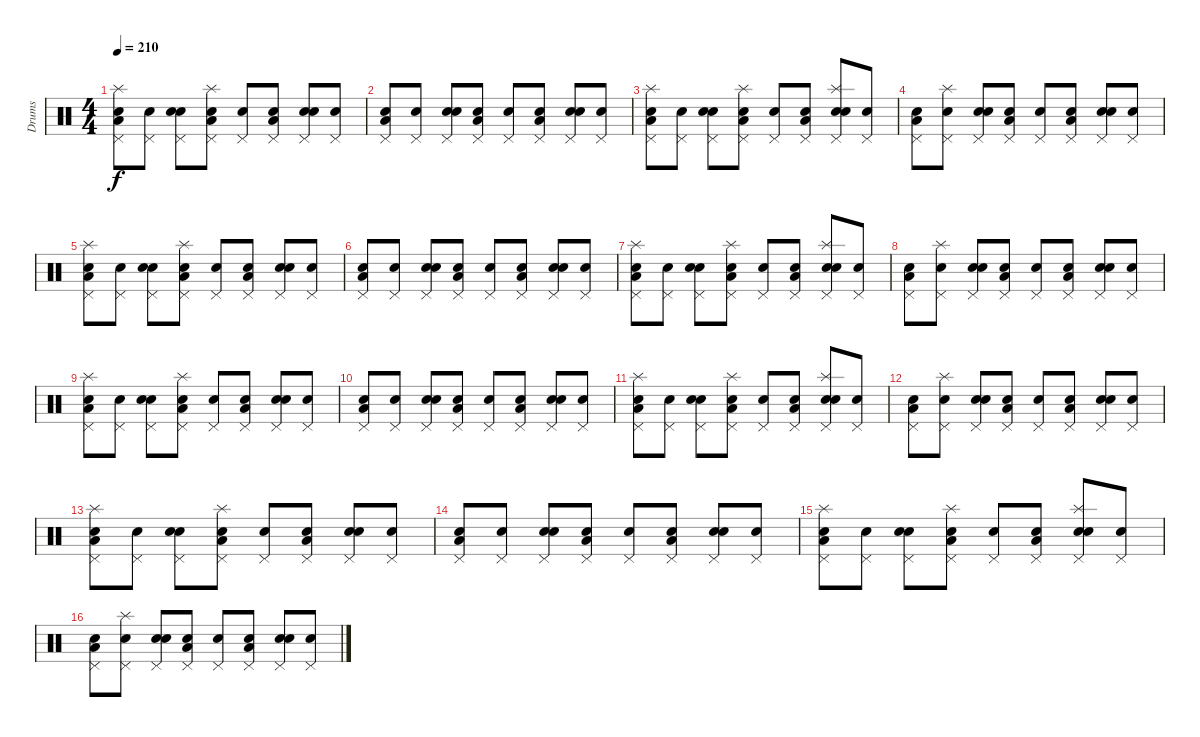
\track ("Drums" "Drums") {instrument percussion}
\staff {score}
\articulation defaults
\ts (4 4)
\tempo 210
\clef neutral
\ks c
("Snare (hit)" "Low Floor Tom (hit)" "Pedal Hi-Hat (hit)" "Splash (hit)").8{dy f} ("Snare (hit)" "Pedal Hi-Hat (hit)").8 ("Snare (hit)" "Electric Snare (hit)" "Pedal Hi-Hat (hit)").8 ("Snare (hit)" "Low Floor Tom (hit)" "Pedal Hi-Hat (hit)" "Splash (hit)").8 ("Snare (hit)" "Pedal Hi-Hat (hit)").8 ("Snare (hit)" "Low Floor Tom (hit)" "Pedal Hi-Hat (hit)").8 ("Snare (hit)" "Electric Snare (hit)" "Pedal Hi-Hat (hit)").8 ("Snare (hit)" "Pedal Hi-Hat (hit)").8 |
("Snare (hit)" "Low Floor Tom (hit)" "Pedal Hi-Hat (hit)").8 ("Snare (hit)" "Pedal Hi-Hat (hit)").8 ("Snare (hit)" "Electric Snare (hit)" "Pedal Hi-Hat (hit)").8 ("Snare (hit)" "Low Floor Tom (hit)" "Pedal Hi-Hat (hit)").8 ("Snare (hit)" "Pedal Hi-Hat (hit)").8 ("Snare (hit)" "Low Floor Tom (hit)" "Pedal Hi-Hat (hit)").8 ("Snare (hit)" "Electric Snare (hit)" "Pedal Hi-Hat (hit)").8 ("Snare (hit)" "Pedal Hi-Hat (hit)").8 |
("Snare (hit)" "Low Floor Tom (hit)" "Pedal Hi-Hat (hit)" "Splash (hit)").8 ("Snare (hit)" "Pedal Hi-Hat (hit)").8 ("Snare (hit)" "Electric Snare (hit)" "Pedal Hi-Hat (hit)").8 ("Snare (hit)" "Low Floor Tom (hit)" "Pedal Hi-Hat (hit)" "Splash (hit)").8 ("Snare (hit)" "Pedal Hi-Hat (hit)").8 ("Snare (hit)" "Low Floor Tom (hit)" "Pedal Hi-Hat (hit)").8 ("Snare (hit)" "Electric Snare (hit)" "Pedal Hi-Hat (hit)" "Splash (hit)").8 ("Snare (hit)" "Pedal Hi-Hat (hit)").8 |
("Snare (hit)" "Low Floor Tom (hit)" "Pedal Hi-Hat (hit)").8 ("Snare (hit)" "Pedal Hi-Hat (hit)" "Splash (hit)").8 ("Snare (hit)" "Electric Snare (hit)" "Pedal Hi-Hat (hit)").8 ("Snare (hit)" "Low Floor Tom (hit)" "Pedal Hi-Hat (hit)").8 ("Snare (hit)" "Pedal Hi-Hat (hit)").8 ("Snare (hit)" "Low Floor Tom (hit)" "Pedal Hi-Hat (hit)").8 ("Snare (hit)" "Electric Snare (hit)" "Pedal Hi-Hat (hit)").8 ("Snare (hit)" "Pedal Hi-Hat (hit)").8 |
("Snare (hit)" "Low Floor Tom (hit)" "Pedal Hi-Hat (hit)" "Splash (hit)").8 ("Snare (hit)" "Pedal Hi-Hat (hit)").8 ("Snare (hit)" "Electric Snare (hit)" "Pedal Hi-Hat (hit)").8 ("Snare (hit)" "Low Floor Tom (hit)" "Pedal Hi-Hat (hit)" "Splash (hit)").8 ("Snare (hit)" "Pedal Hi-Hat (hit)").8 ("Snare (hit)" "Low Floor Tom (hit)" "Pedal Hi-Hat (hit)").8 ("Snare (hit)" "Electric Snare (hit)" "Pedal Hi-Hat (hit)").8 ("Snare (hit)" "Pedal Hi-Hat (hit)").8 |
("Snare (hit)" "Low Floor Tom (hit)" "Pedal Hi-Hat (hit)").8 ("Snare (hit)" "Pedal Hi-Hat (hit)").8 ("Snare (hit)" "Electric Snare (hit)" "Pedal Hi-Hat (hit)").8 ("Snare (hit)" "Low Floor Tom (hit)" "Pedal Hi-Hat (hit)").8 ("Snare (hit)" "Pedal Hi-Hat (hit)").8 ("Snare (hit)" "Low Floor Tom (hit)" "Pedal Hi-Hat (hit)").8 ("Snare (hit)" "Electric Snare (hit)" "Pedal Hi-Hat (hit)").8 ("Snare (hit)" "Pedal Hi-Hat (hit)").8 |
("Snare (hit)" "Low Floor Tom (hit)" "Pedal Hi-Hat (hit)" "Splash (hit)").8 ("Snare (hit)" "Pedal Hi-Hat (hit)").8 ("Snare (hit)" "Electric Snare (hit)" "Pedal Hi-Hat (hit)").8 ("Snare (hit)" "Low Floor Tom (hit)" "Pedal Hi-Hat (hit)" "Splash (hit)").8 ("Snare (hit)" "Pedal Hi-Hat (hit)").8 ("Snare (hit)" "Low Floor Tom (hit)" "Pedal Hi-Hat (hit)").8 ("Snare (hit)" "Electric Snare (hit)" "Pedal Hi-Hat (hit)" "Splash (hit)").8 ("Snare (hit)" "Pedal Hi-Hat (hit)").8 |
("Snare (hit)" "Low Floor Tom (hit)" "Pedal Hi-Hat (hit)").8 ("Snare (hit)" "Pedal Hi-Hat (hit)" "Splash (hit)").8 ("Snare (hit)" "Electric Snare (hit)" "Pedal Hi-Hat (hit)").8 ("Snare (hit)" "Low Floor Tom (hit)" "Pedal Hi-Hat (hit)").8 ("Snare (hit)" "Pedal Hi-Hat (hit)").8 ("Snare (hit)" "Low Floor Tom (hit)" "Pedal Hi-Hat (hit)").8 ("Snare (hit)" "Electric Snare (hit)" "Pedal Hi-Hat (hit)").8 ("Snare (hit)" "Pedal Hi-Hat (hit)").8 |
("Snare (hit)" "Low Floor Tom (hit)" "Pedal Hi-Hat (hit)" "Splash (hit)").8 ("Snare (hit)" "Pedal Hi-Hat (hit)").8 ("Snare (hit)" "Electric Snare (hit)" "Pedal Hi-Hat (hit)").8 ("Snare (hit)" "Low Floor Tom (hit)" "Pedal Hi-Hat (hit)" "Splash (hit)").8 ("Snare (hit)" "Pedal Hi-Hat (hit)").8 ("Snare (hit)" "Low Floor Tom (hit)" "Pedal Hi-Hat (hit)").8 ("Snare (hit)" "Electric Snare (hit)" "Pedal Hi-Hat (hit)").8 ("Snare (hit)" "Pedal Hi-Hat (hit)").8 |
("Snare (hit)" "Low Floor Tom (hit)" "Pedal Hi-Hat (hit)").8 ("Snare (hit)" "Pedal Hi-Hat (hit)").8 ("Snare (hit)" "Electric Snare (hit)" "Pedal Hi-Hat (hit)").8 ("Snare (hit)" "Low Floor Tom (hit)" "Pedal Hi-Hat (hit)").8 ("Snare (hit)" "Pedal Hi-Hat (hit)").8 ("Snare (hit)" "Low Floor Tom (hit)" "Pedal Hi-Hat (hit)").8 ("Snare (hit)" "Electric Snare (hit)" "Pedal Hi-Hat (hit)").8 ("Snare (hit)" "Pedal Hi-Hat (hit)").8 |
("Snare (hit)" "Low Floor Tom (hit)" "Pedal Hi-Hat (hit)" "Splash (hit)").8 ("Snare (hit)" "Pedal Hi-Hat (hit)").8 ("Snare (hit)" "Electric Snare (hit)" "Pedal Hi-Hat (hit)").8 ("Snare (hit)" "Low Floor Tom (hit)" "Pedal Hi-Hat (hit)" "Splash (hit)").8 ("Snare (hit)" "Pedal Hi-Hat (hit)").8 ("Snare (hit)" "Low Floor Tom (hit)" "Pedal Hi-Hat (hit)").8 ("Snare (hit)" "Electric Snare (hit)" "Pedal Hi-Hat (hit)" "Splash (hit)").8 ("Snare (hit)" "Pedal Hi-Hat (hit)").8 |
("Snare (hit)" "Low Floor Tom (hit)" "Pedal Hi-Hat (hit)").8 ("Snare (hit)" "Pedal Hi-Hat (hit)" "Splash (hit)").8 ("Snare (hit)" "Electric Snare (hit)" "Pedal Hi-Hat (hit)").8 ("Snare (hit)" "Low Floor Tom (hit)" "Pedal Hi-Hat (hit)").8 ("Snare (hit)" "Pedal Hi-Hat (hit)").8 ("Snare (hit)" "Low Floor Tom (hit)" "Pedal Hi-Hat (hit)").8 ("Snare (hit)" "Electric Snare (hit)" "Pedal Hi-Hat (hit)").8 ("Snare (hit)" "Pedal Hi-Hat (hit)").8 |
("Snare (hit)" "Low Floor Tom (hit)" "Pedal Hi-Hat (hit)" "Splash (hit)").8 ("Snare (hit)" "Pedal Hi-Hat (hit)").8 ("Snare (hit)" "Electric Snare (hit)" "Pedal Hi-Hat (hit)").8 ("Snare (hit)" "Low Floor Tom (hit)" "Pedal Hi-Hat (hit)" "Splash (hit)").8 ("Snare (hit)" "Pedal Hi-Hat (hit)").8 ("Snare (hit)" "Low Floor Tom (hit)" "Pedal Hi-Hat (hit)").8 ("Snare (hit)" "Electric Snare (hit)" "Pedal Hi-Hat (hit)").8 ("Snare (hit)" "Pedal Hi-Hat (hit)").8 |
("Snare (hit)" "Low Floor Tom (hit)" "Pedal Hi-Hat (hit)").8 ("Snare (hit)" "Pedal Hi-Hat (hit)").8 ("Snare (hit)" "Electric Snare (hit)" "Pedal Hi-Hat (hit)").8 ("Snare (hit)" "Low Floor Tom (hit)" "Pedal Hi-Hat (hit)").8 ("Snare (hit)" "Pedal Hi-Hat (hit)").8 ("Snare (hit)" "Low Floor Tom (hit)" "Pedal Hi-Hat (hit)").8 ("Snare (hit)" "Electric Snare (hit)" "Pedal Hi-Hat (hit)").8 ("Snare (hit)" "Pedal Hi-Hat (hit)").8 |
("Snare (hit)" "Low Floor Tom (hit)" "Pedal Hi-Hat (hit)" "Splash (hit)").8 ("Snare (hit)" "Pedal Hi-Hat (hit)").8 ("Snare (hit)" "Electric Snare (hit)" "Pedal Hi-Hat (hit)").8 ("Snare (hit)" "Low Floor Tom (hit)" "Pedal Hi-Hat (hit)" "Splash (hit)").8 ("Snare (hit)" "Pedal Hi-Hat (hit)").8 ("Snare (hit)" "Low Floor Tom (hit)" "Pedal Hi-Hat (hit)").8 ("Snare (hit)" "Electric Snare (hit)" "Pedal Hi-Hat (hit)" "Splash (hit)").8 ("Snare (hit)" "Pedal Hi-Hat (hit)").8 |
("Snare (hit)" "Low Floor Tom (hit)" "Pedal Hi-Hat (hit)").8 ("Snare (hit)" "Pedal Hi-Hat (hit)" "Splash (hit)").8 ("Snare (hit)" "Electric Snare (hit)" "Pedal Hi-Hat (hit)").8 ("Snare (hit)" "Low Floor Tom (hit)" "Pedal Hi-Hat (hit)").8 ("Snare (hit)" "Pedal Hi-Hat (hit)").8 ("Snare (hit)" "Low Floor Tom (hit)" "Pedal Hi-Hat (hit)").8 ("Snare (hit)" "Electric Snare (hit)" "Pedal Hi-Hat (hit)").8 ("Snare (hit)" "Pedal Hi-Hat (hit)").8
